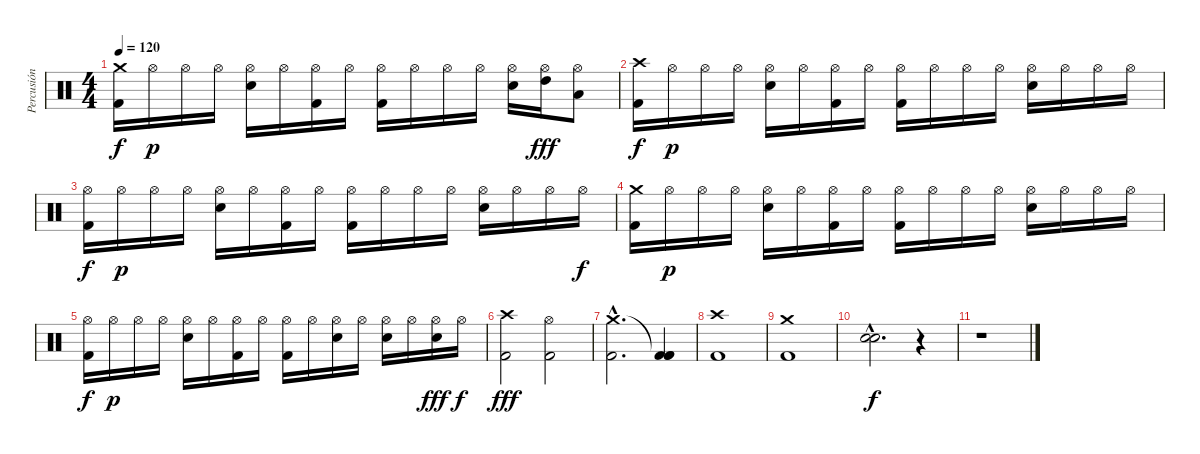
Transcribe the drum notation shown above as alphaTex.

\track ("Percusión" "Percusión") {instrument percussion}
\staff {score}
\articulation defaults
\ts (4 4)
\tempo 120
\clef neutral
\ks c
("Crash medium (hit)" "Kick (hit) 2").16{dy f} "Hi-Hat (open)".16{dy p} "Hi-Hat (open)".16 "Hi-Hat (open)".16 ("Hi-Hat (open)" "Snare (hit) 2").16 "Hi-Hat (open)".16 ("Hi-Hat (open)" "Kick (hit) 2").16 "Hi-Hat (open)".16 ("Hi-Hat (open)" "Kick (hit) 2").16 "Hi-Hat (open)".16 "Hi-Hat (open)".16 "Hi-Hat (open)".16 ("Hi-Hat (open)" "Snare (hit) 2").16 ("Hi-Hat (open)" "High Tom (hit)").16{dy fff} ("Hi-Hat (open)" "Low Tom (hit)").8 |
("Crash high (hit)" "Kick (hit) 2").16{dy f} "Hi-Hat (open)".16{dy p} "Hi-Hat (open)".16 "Hi-Hat (open)".16 ("Hi-Hat (open)" "Snare (hit) 2").16 "Hi-Hat (open)".16 ("Hi-Hat (open)" "Kick (hit) 2").16 "Hi-Hat (open)".16 ("Hi-Hat (open)" "Kick (hit) 2").16 "Hi-Hat (open)".16 "Hi-Hat (open)".16 "Hi-Hat (open)".16 ("Hi-Hat (open)" "Snare (hit) 2").16 "Hi-Hat (open)".16 "Hi-Hat (open)".16 "Hi-Hat (open)".16 |
("Hi-Hat (open)" "Kick (hit) 2").16{dy f} "Hi-Hat (open)".16{dy p} "Hi-Hat (open)".16 "Hi-Hat (open)".16 ("Hi-Hat (open)" "Snare (hit) 2").16 "Hi-Hat (open)".16 ("Hi-Hat (open)" "Kick (hit) 2").16 "Hi-Hat (open)".16 ("Hi-Hat (open)" "Kick (hit) 2").16 "Hi-Hat (open)".16 "Hi-Hat (open)".16 "Hi-Hat (open)".16 ("Hi-Hat (open)" "Snare (hit) 2").16 "Hi-Hat (open)".16 "Hi-Hat (open)".16 "Hi-Hat (open)".16{dy f} |
("Crash medium (hit)" "Kick (hit) 2").16 "Hi-Hat (open)".16{dy p} "Hi-Hat (open)".16 "Hi-Hat (open)".16 ("Hi-Hat (open)" "Snare (hit) 2").16 "Hi-Hat (open)".16 ("Hi-Hat (open)" "Kick (hit) 2").16 "Hi-Hat (open)".16 ("Hi-Hat (open)" "Kick (hit) 2").16 "Hi-Hat (open)".16 "Hi-Hat (open)".16 "Hi-Hat (open)".16 ("Hi-Hat (open)" "Snare (hit) 2").16 "Hi-Hat (open)".16 "Hi-Hat (open)".16 "Hi-Hat (open)".16 |
("Hi-Hat (open)" "Kick (hit) 2").16{dy f} "Hi-Hat (open)".16{dy p} "Hi-Hat (open)".16 "Hi-Hat (open)".16 ("Hi-Hat (open)" "Snare (hit) 2").16 "Hi-Hat (open)".16 ("Hi-Hat (open)" "Kick (hit) 2").16 "Hi-Hat (open)".16 ("Hi-Hat (open)" "Kick (hit) 2").16 "Hi-Hat (open)".16 ("Hi-Hat (open)" "Snare (hit) 2").16 "Hi-Hat (open)".16 ("Hi-Hat (open)" "Snare (hit) 2").16 "Hi-Hat (open)".16 ("Hi-Hat (open)" "Snare (hit) 2").16{dy fff} "Hi-Hat (open)".16{dy f} |
("Crash high (hit)" "Kick (hit) 2").2{dy fff} ("Hi-Hat (open)" "Kick (hit) 2").2 |
("Crash medium (hit)"{hac} "Kick (hit) 2"{hac}).2{d} ("Kick (hit) 2"{t} "Kick (hit) 2" "Kick (hit) 2").4{bd 480} |
("Crash high (hit)" "Kick (hit) 2").1 |
("Crash medium (hit)" "Kick (hit) 2").1 |
("Snare (hit) 2"{hac} "Snare (hit) 2"{hac}).2{d bd 480 dy f} r.4 |
r.1
